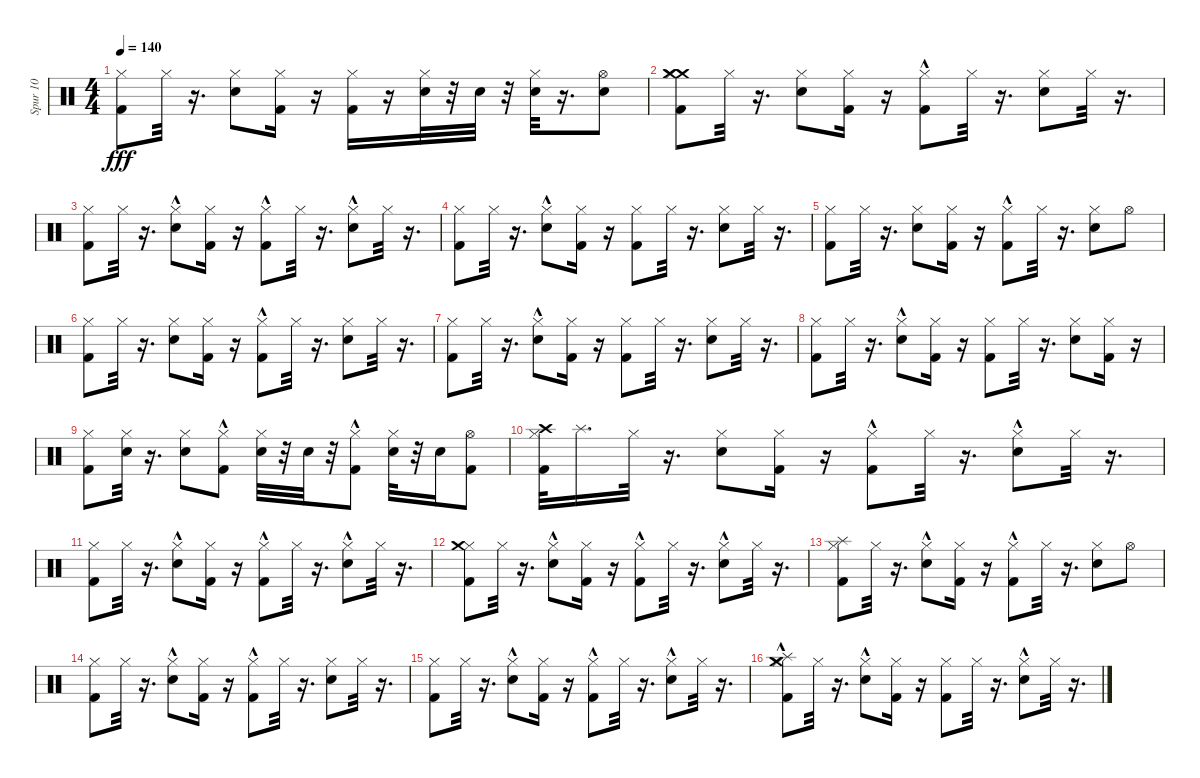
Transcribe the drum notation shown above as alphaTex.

\track ("Spur 10" "Spur 10") {instrument percussion}
\staff {score}
\articulation defaults
\ts (4 4)
\tempo 140
\clef neutral
\ks c
("Kick (hit) 2" "Hi-Hat (closed)").8{dy fff} "Hi-Hat (closed)".32 r.16{d} ("Snare (hit) 2" "Hi-Hat (closed)").8 ("Kick (hit) 2" "Hi-Hat (closed)").16 r.16 ("Kick (hit) 2" "Hi-Hat (closed)").16 r.16 ("Snare (hit) 2" "Hi-Hat (closed)").32 r.32 "Snare (hit) 2".32 r.32 ("Snare (hit) 2" "Hi-Hat (closed)").32 r.16{d} ("Snare (hit) 2" "Hi-Hat (open)").8 |
("Kick (hit) 2" "Crash medium (hit)" "Hi-Hat (closed)" "Crash medium (hit)").8{volume 8} "Hi-Hat (closed)".32 r.16{d} ("Snare (hit) 2" "Hi-Hat (closed)").8 ("Kick (hit) 2" "Hi-Hat (closed)").16 r.16 ("Kick (hit) 2"{hac} "Hi-Hat (closed)").8 "Hi-Hat (closed)".32 r.16{d} ("Snare (hit) 2" "Hi-Hat (closed)").8 "Hi-Hat (closed)".32 r.16{d} |
("Kick (hit) 2" "Hi-Hat (closed)").8 "Hi-Hat (closed)".32 r.16{d} ("Snare (hit) 2"{hac} "Hi-Hat (closed)").8 ("Kick (hit) 2" "Hi-Hat (closed)").16 r.16 ("Kick (hit) 2"{hac} "Hi-Hat (closed)").8 "Hi-Hat (closed)".32 r.16{d} ("Snare (hit) 2"{hac} "Hi-Hat (closed)").8 "Hi-Hat (closed)".32 r.16{d} |
("Kick (hit) 2" "Hi-Hat (closed)").8 "Hi-Hat (closed)".32 r.16{d} ("Snare (hit) 2"{hac} "Hi-Hat (closed)").8 ("Kick (hit) 2" "Hi-Hat (closed)").16 r.16 ("Kick (hit) 2" "Hi-Hat (closed)").8 "Hi-Hat (closed)".32 r.16{d} ("Snare (hit) 2" "Hi-Hat (closed)").8 "Hi-Hat (closed)".32 r.16{d} |
("Kick (hit) 2" "Hi-Hat (closed)").8 "Hi-Hat (closed)".32 r.16{d} ("Snare (hit) 2" "Hi-Hat (closed)").8 ("Kick (hit) 2" "Hi-Hat (closed)").16 r.16 ("Kick (hit) 2"{hac} "Hi-Hat (closed)").8 "Hi-Hat (closed)".32 r.16{d} ("Snare (hit) 2" "Hi-Hat (closed)").8 "Hi-Hat (open)".8 |
("Kick (hit) 2" "Hi-Hat (closed)").8 "Hi-Hat (closed)".32 r.16{d} ("Snare (hit) 2" "Hi-Hat (closed)").8 ("Kick (hit) 2" "Hi-Hat (closed)").16 r.16 ("Kick (hit) 2"{hac} "Hi-Hat (closed)").8 "Hi-Hat (closed)".32 r.16{d} ("Snare (hit) 2" "Hi-Hat (closed)").8 "Hi-Hat (closed)".32 r.16{d} |
("Kick (hit) 2" "Hi-Hat (closed)").8 "Hi-Hat (closed)".32 r.16{d} ("Snare (hit) 2"{hac} "Hi-Hat (closed)").8 ("Kick (hit) 2" "Hi-Hat (closed)").16 r.16 ("Kick (hit) 2" "Hi-Hat (closed)").8 "Hi-Hat (closed)".32 r.16{d} ("Snare (hit) 2" "Hi-Hat (closed)").8 "Hi-Hat (closed)".32 r.16{d} |
("Kick (hit) 2" "Hi-Hat (closed)").8 "Hi-Hat (closed)".32 r.16{d} ("Snare (hit) 2"{hac} "Hi-Hat (closed)").8 ("Kick (hit) 2" "Hi-Hat (closed)").16 r.16 ("Kick (hit) 2" "Hi-Hat (closed)").8 "Hi-Hat (closed)".32 r.16{d} ("Snare (hit) 2" "Hi-Hat (closed)").8 ("Kick (hit) 2" "Hi-Hat (closed)").16 r.16 |
("Kick (hit) 2" "Hi-Hat (closed)").8 ("Snare (hit) 2" "Hi-Hat (closed)").32 r.16{d} ("Snare (hit) 2" "Hi-Hat (closed)").8 ("Kick (hit) 2"{hac} "Hi-Hat (closed)").8 ("Snare (hit) 2" "Hi-Hat (closed)").32 r.32 "Snare (hit) 2".32 r.32 ("Kick (hit) 2"{hac} "Hi-Hat (closed)").8 ("Snare (hit) 2" "Hi-Hat (closed)").32 r.32 "Snare (hit) 2".16 ("Kick (hit) 2" "Hi-Hat (open)").8 |
("Kick (hit) 2" "Crash high (hit)" "Hi-Hat (closed)").32 "Splash (hit)".16{d} "Hi-Hat (closed)".32 r.16{d} ("Snare (hit) 2" "Hi-Hat (closed)").8 ("Kick (hit) 2" "Hi-Hat (closed)").16 r.16 ("Kick (hit) 2"{hac} "Hi-Hat (closed)").8 "Hi-Hat (closed)".32 r.16{d} ("Snare (hit) 2"{hac} "Hi-Hat (closed)").8 "Hi-Hat (closed)".32 r.16{d} |
("Kick (hit) 2" "Hi-Hat (closed)").8 "Hi-Hat (closed)".32 r.16{d} ("Snare (hit) 2"{hac} "Hi-Hat (closed)").8 ("Kick (hit) 2" "Hi-Hat (closed)").16 r.16 ("Kick (hit) 2"{hac} "Hi-Hat (closed)").8 "Hi-Hat (closed)".32 r.16{d} ("Snare (hit) 2"{hac} "Hi-Hat (closed)").8 "Hi-Hat (closed)".32 r.16{d} |
("Kick (hit) 2" "Hi-Hat (closed)" "Crash medium (hit)").8 "Hi-Hat (closed)".32 r.16{d} ("Snare (hit) 2"{hac} "Hi-Hat (closed)").8 ("Kick (hit) 2" "Hi-Hat (closed)").16 r.16 ("Kick (hit) 2"{hac} "Hi-Hat (closed)").8 "Hi-Hat (closed)".32 r.16{d} ("Snare (hit) 2"{hac} "Hi-Hat (closed)").8 "Hi-Hat (closed)".32 r.16{d} |
("Kick (hit) 2" "Hi-Hat (closed)" "Splash (hit)").8 "Hi-Hat (closed)".32 r.16{d} ("Snare (hit) 2"{hac} "Hi-Hat (closed)").8 ("Kick (hit) 2" "Hi-Hat (closed)").16 r.16 ("Kick (hit) 2"{hac} "Hi-Hat (closed)").8 "Hi-Hat (closed)".32 r.16{d} ("Snare (hit) 2" "Hi-Hat (closed)").8 "Hi-Hat (open)".8 |
("Kick (hit) 2" "Hi-Hat (closed)").8 "Hi-Hat (closed)".32 r.16{d} ("Snare (hit) 2"{hac} "Hi-Hat (closed)").8 ("Kick (hit) 2" "Hi-Hat (closed)").16 r.16 ("Kick (hit) 2"{hac} "Hi-Hat (closed)").8 "Hi-Hat (closed)".32 r.16{d} ("Snare (hit) 2" "Hi-Hat (closed)").8 "Hi-Hat (closed)".32 r.16{d} |
("Kick (hit) 2" "Hi-Hat (closed)").8 "Hi-Hat (closed)".32 r.16{d} ("Snare (hit) 2"{hac} "Hi-Hat (closed)").8 ("Kick (hit) 2" "Hi-Hat (closed)").16 r.16 ("Kick (hit) 2"{hac} "Hi-Hat (closed)").8 "Hi-Hat (closed)".32 r.16{d} ("Snare (hit) 2"{hac} "Hi-Hat (closed)").8 "Hi-Hat (closed)".32 r.16{d} |
("Kick (hit) 2" "Hi-Hat (closed)" "Splash (hit)"{hac} "Crash medium (hit)"{hac}).8 "Hi-Hat (closed)".32 r.16{d} ("Snare (hit) 2"{hac} "Hi-Hat (closed)").8 ("Kick (hit) 2" "Hi-Hat (closed)").16 r.16 ("Kick (hit) 2" "Hi-Hat (closed)").8 "Hi-Hat (closed)".32 r.16{d} ("Snare (hit) 2"{hac} "Hi-Hat (closed)").8 "Hi-Hat (closed)".32 r.16{d}
